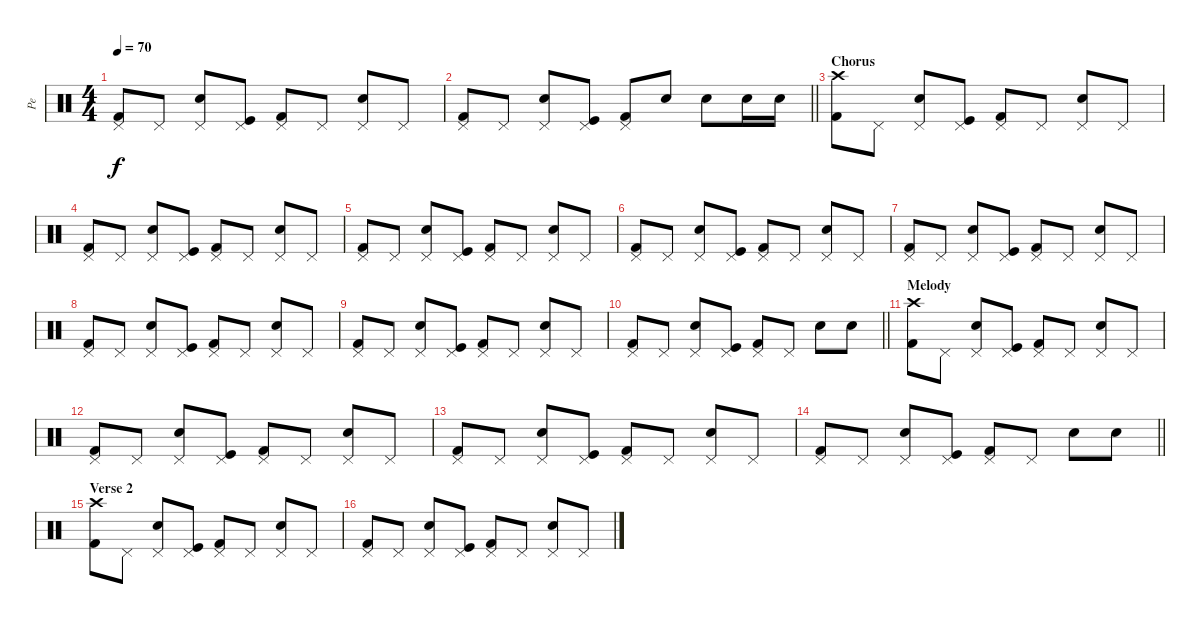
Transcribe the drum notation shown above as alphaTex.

\track ("Pe" "Pe") {instrument percussion}
\staff {score}
\articulation defaults
\ts (4 4)
\tempo 70
\clef neutral
\ks c
("Kick (hit) 2" "Pedal Hi-Hat (hit)").8{dy f} "Pedal Hi-Hat (hit)".8 ("Electric Snare (hit)" "Pedal Hi-Hat (hit)").8 ("Kick (hit)" "Pedal Hi-Hat (hit)").8 ("Kick (hit) 2" "Pedal Hi-Hat (hit)").8 "Pedal Hi-Hat (hit)".8 ("Electric Snare (hit)" "Pedal Hi-Hat (hit)").8 "Pedal Hi-Hat (hit)".8 |
\barLineRight lightlight
("Kick (hit) 2" "Pedal Hi-Hat (hit)").8 "Pedal Hi-Hat (hit)".8 ("Electric Snare (hit)" "Pedal Hi-Hat (hit)").8 ("Kick (hit)" "Pedal Hi-Hat (hit)").8 ("Kick (hit) 2" "Pedal Hi-Hat (hit)").8 "Electric Snare (hit)".8 "Electric Snare (hit)".8 "Electric Snare (hit)".16 "Electric Snare (hit)".16 |
\section ("" "Chorus")
("Kick (hit) 2" "Crash high (hit)").8 "Pedal Hi-Hat (hit)".8 ("Electric Snare (hit)" "Pedal Hi-Hat (hit)").8 ("Kick (hit)" "Pedal Hi-Hat (hit)").8 ("Kick (hit) 2" "Pedal Hi-Hat (hit)").8 "Pedal Hi-Hat (hit)".8 ("Electric Snare (hit)" "Pedal Hi-Hat (hit)").8 "Pedal Hi-Hat (hit)".8 |
("Kick (hit) 2" "Pedal Hi-Hat (hit)").8 "Pedal Hi-Hat (hit)".8 ("Electric Snare (hit)" "Pedal Hi-Hat (hit)").8 ("Kick (hit)" "Pedal Hi-Hat (hit)").8 ("Kick (hit) 2" "Pedal Hi-Hat (hit)").8 "Pedal Hi-Hat (hit)".8 ("Electric Snare (hit)" "Pedal Hi-Hat (hit)").8 "Pedal Hi-Hat (hit)".8 |
("Kick (hit) 2" "Pedal Hi-Hat (hit)").8 "Pedal Hi-Hat (hit)".8 ("Electric Snare (hit)" "Pedal Hi-Hat (hit)").8 ("Kick (hit)" "Pedal Hi-Hat (hit)").8 ("Kick (hit) 2" "Pedal Hi-Hat (hit)").8 "Pedal Hi-Hat (hit)".8 ("Electric Snare (hit)" "Pedal Hi-Hat (hit)").8 "Pedal Hi-Hat (hit)".8 |
("Kick (hit) 2" "Pedal Hi-Hat (hit)").8 "Pedal Hi-Hat (hit)".8 ("Electric Snare (hit)" "Pedal Hi-Hat (hit)").8 ("Kick (hit)" "Pedal Hi-Hat (hit)").8 ("Kick (hit) 2" "Pedal Hi-Hat (hit)").8 "Pedal Hi-Hat (hit)".8 ("Electric Snare (hit)" "Pedal Hi-Hat (hit)").8 "Pedal Hi-Hat (hit)".8 |
("Kick (hit) 2" "Pedal Hi-Hat (hit)").8 "Pedal Hi-Hat (hit)".8 ("Electric Snare (hit)" "Pedal Hi-Hat (hit)").8 ("Kick (hit)" "Pedal Hi-Hat (hit)").8 ("Kick (hit) 2" "Pedal Hi-Hat (hit)").8 "Pedal Hi-Hat (hit)".8 ("Electric Snare (hit)" "Pedal Hi-Hat (hit)").8 "Pedal Hi-Hat (hit)".8 |
("Kick (hit) 2" "Pedal Hi-Hat (hit)").8 "Pedal Hi-Hat (hit)".8 ("Electric Snare (hit)" "Pedal Hi-Hat (hit)").8 ("Kick (hit)" "Pedal Hi-Hat (hit)").8 ("Kick (hit) 2" "Pedal Hi-Hat (hit)").8 "Pedal Hi-Hat (hit)".8 ("Electric Snare (hit)" "Pedal Hi-Hat (hit)").8 "Pedal Hi-Hat (hit)".8 |
("Kick (hit) 2" "Pedal Hi-Hat (hit)").8 "Pedal Hi-Hat (hit)".8 ("Electric Snare (hit)" "Pedal Hi-Hat (hit)").8 ("Kick (hit)" "Pedal Hi-Hat (hit)").8 ("Kick (hit) 2" "Pedal Hi-Hat (hit)").8 "Pedal Hi-Hat (hit)".8 ("Electric Snare (hit)" "Pedal Hi-Hat (hit)").8 "Pedal Hi-Hat (hit)".8 |
\barLineRight lightlight
("Kick (hit) 2" "Pedal Hi-Hat (hit)").8 "Pedal Hi-Hat (hit)".8 ("Electric Snare (hit)" "Pedal Hi-Hat (hit)").8 ("Kick (hit)" "Pedal Hi-Hat (hit)").8 ("Kick (hit) 2" "Pedal Hi-Hat (hit)").8 "Pedal Hi-Hat (hit)".8 "Electric Snare (hit)".8 "Electric Snare (hit)".8 |
\section ("" "Melody")
("Kick (hit) 2" "Crash high (hit)").8 "Pedal Hi-Hat (hit)".8 ("Electric Snare (hit)" "Pedal Hi-Hat (hit)").8 ("Kick (hit)" "Pedal Hi-Hat (hit)").8 ("Kick (hit) 2" "Pedal Hi-Hat (hit)").8 "Pedal Hi-Hat (hit)".8 ("Electric Snare (hit)" "Pedal Hi-Hat (hit)").8 "Pedal Hi-Hat (hit)".8 |
("Kick (hit) 2" "Pedal Hi-Hat (hit)").8 "Pedal Hi-Hat (hit)".8 ("Electric Snare (hit)" "Pedal Hi-Hat (hit)").8 ("Kick (hit)" "Pedal Hi-Hat (hit)").8 ("Kick (hit) 2" "Pedal Hi-Hat (hit)").8 "Pedal Hi-Hat (hit)".8 ("Electric Snare (hit)" "Pedal Hi-Hat (hit)").8 "Pedal Hi-Hat (hit)".8 |
("Kick (hit) 2" "Pedal Hi-Hat (hit)").8 "Pedal Hi-Hat (hit)".8 ("Electric Snare (hit)" "Pedal Hi-Hat (hit)").8 ("Kick (hit)" "Pedal Hi-Hat (hit)").8 ("Kick (hit) 2" "Pedal Hi-Hat (hit)").8 "Pedal Hi-Hat (hit)".8 ("Electric Snare (hit)" "Pedal Hi-Hat (hit)").8 "Pedal Hi-Hat (hit)".8 |
\barLineRight lightlight
("Kick (hit) 2" "Pedal Hi-Hat (hit)").8 "Pedal Hi-Hat (hit)".8 ("Electric Snare (hit)" "Pedal Hi-Hat (hit)").8 ("Kick (hit)" "Pedal Hi-Hat (hit)").8 ("Kick (hit) 2" "Pedal Hi-Hat (hit)").8 "Pedal Hi-Hat (hit)".8 "Electric Snare (hit)".8 "Electric Snare (hit)".8 |
\section ("" "Verse 2")
("Kick (hit) 2" "Crash high (hit)").8 "Pedal Hi-Hat (hit)".8 ("Electric Snare (hit)" "Pedal Hi-Hat (hit)").8 ("Kick (hit)" "Pedal Hi-Hat (hit)").8 ("Kick (hit) 2" "Pedal Hi-Hat (hit)").8 "Pedal Hi-Hat (hit)".8 ("Electric Snare (hit)" "Pedal Hi-Hat (hit)").8 "Pedal Hi-Hat (hit)".8 |
("Kick (hit) 2" "Pedal Hi-Hat (hit)").8 "Pedal Hi-Hat (hit)".8 ("Electric Snare (hit)" "Pedal Hi-Hat (hit)").8 ("Kick (hit)" "Pedal Hi-Hat (hit)").8 ("Kick (hit) 2" "Pedal Hi-Hat (hit)").8 "Pedal Hi-Hat (hit)".8 ("Electric Snare (hit)" "Pedal Hi-Hat (hit)").8 "Pedal Hi-Hat (hit)".8
